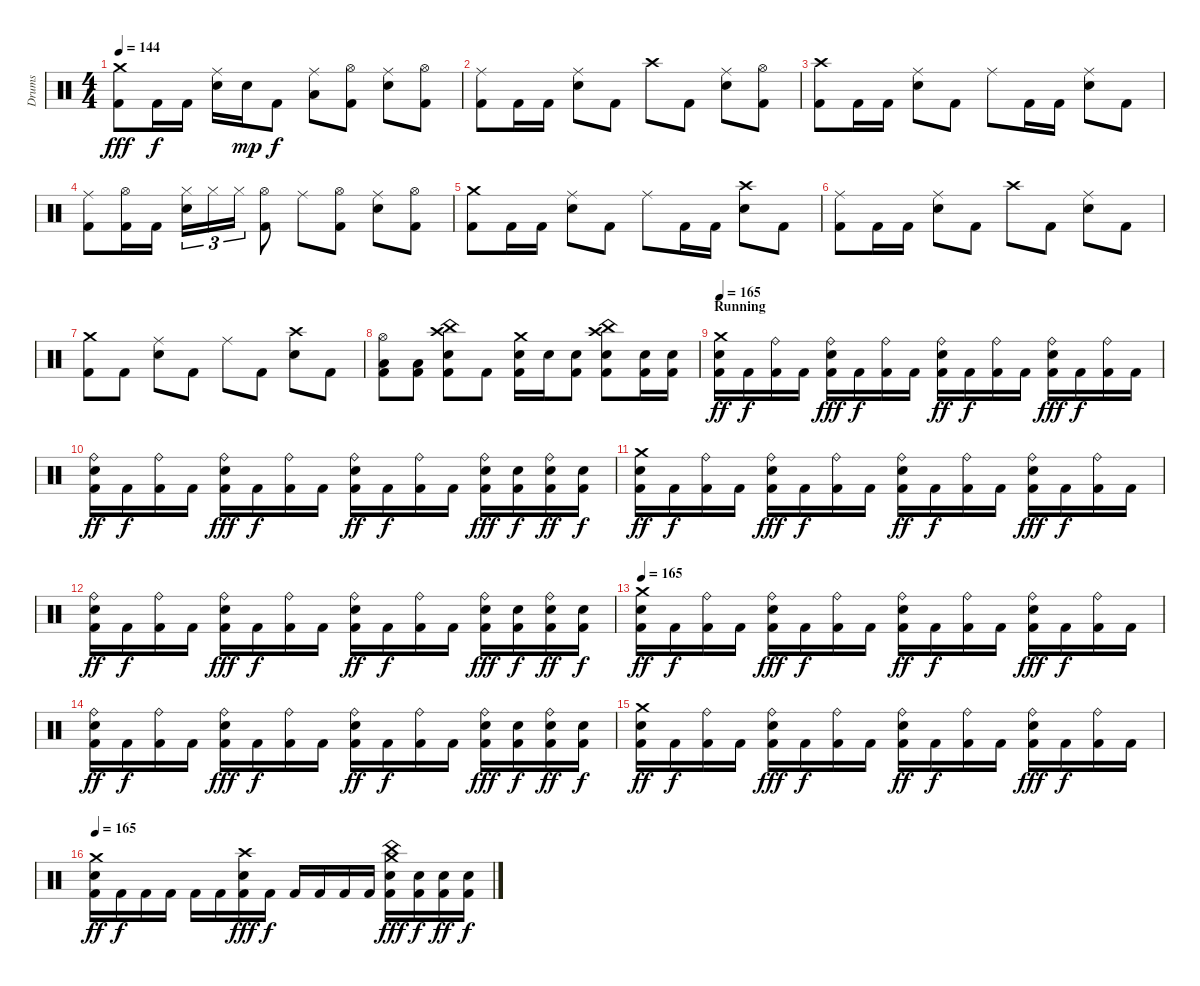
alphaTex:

\track ("Drums" "Drums") {instrument percussion}
\staff {score}
\articulation defaults
\ts (4 4)
\tempo 144
\clef neutral
\ks c
("Crash medium (hit)" "Kick (hit) 2").8{dy fff} "Kick (hit) 2".16{dy f} "Kick (hit) 2".16 ("Ride (middle)" "Snare (hit) 2").16 "Snare (hit) 2".16{dy mp} "Kick (hit) 2".8{dy f} ("Ride (middle)" "Low Tom (hit)").8 ("Hi-Hat (open)" "Kick (hit) 2").8 ("Ride (middle)" "Snare (hit) 2").8 ("Hi-Hat (open)" "Kick (hit) 2").8 |
("Ride (middle)" "Kick (hit) 2").8 "Kick (hit) 2".16 "Kick (hit) 2".16 ("Ride (middle)" "Snare (hit) 2").8 "Kick (hit) 2".8 "Crash high (hit)".8 "Kick (hit) 2".8 ("Ride (middle)" "Snare (hit) 2").8 ("Hi-Hat (open)" "Kick (hit) 2").8 |
("Crash high (hit)" "Kick (hit) 2").8 "Kick (hit) 2".16 "Kick (hit) 2".16 ("Ride (middle)" "Snare (hit) 2").8 "Kick (hit) 2".8 "Ride (middle)".8 "Kick (hit) 2".16 "Kick (hit) 2".16 ("Ride (middle)" "Snare (hit) 2").8 "Kick (hit) 2".8 |
("Ride (middle)" "Kick (hit) 2").8 ("Hi-Hat (open)" "Kick (hit) 2").16 "Kick (hit) 2".16 ("Hi-Hat (closed)" "Snare (hit) 2").16{tu (3 2)} "Hi-Hat (closed)".16{tu (3 2)} "Hi-Hat (closed)".16{tu (3 2)} ("Hi-Hat (open)" "Kick (hit) 2").8 "Ride (middle)".8 ("Hi-Hat (open)" "Kick (hit) 2").8 ("Ride (middle)" "Snare (hit) 2").8 ("Hi-Hat (open)" "Kick (hit) 2").8 |
("Crash medium (hit)" "Kick (hit) 2").8 "Kick (hit) 2".16 "Kick (hit) 2".16 ("Ride (middle)" "Snare (hit) 2").8 "Kick (hit) 2".8 "Ride (middle)".8 "Kick (hit) 2".16 "Kick (hit) 2".16 ("Crash high (hit)" "Snare (hit) 2").8 "Kick (hit) 2".8 |
("Ride (middle)" "Kick (hit) 2").8 "Kick (hit) 2".16 "Kick (hit) 2".16 ("Ride (middle)" "Snare (hit) 2").8 "Kick (hit) 2".8 "Crash high (hit)".8 "Kick (hit) 2".8 ("Ride (middle)" "Snare (hit) 2").8 "Kick (hit) 2".8 |
("Crash medium (hit)" "Kick (hit) 2").8 "Kick (hit) 2".8 ("Ride (middle)" "Snare (hit) 2").8 "Kick (hit) 2".8 "Ride (middle)".8 "Kick (hit) 2".8 ("Crash high (hit)" "Snare (hit) 2").8 "Kick (hit) 2".8 |
("Hi-Hat (open)" "Low Tom (hit)" "Kick (hit) 2").8 ("Low Tom (hit)" "Kick (hit) 2").8 ("Crash high (hit)" "China (hit)" "Snare (hit) 2" "Kick (hit) 2").8 "Kick (hit) 2".8 ("Crash medium (hit)" "Snare (hit) 2" "Kick (hit) 2").16 "Snare (hit) 2".16 ("Snare (hit) 2" "Kick (hit) 2").8 ("Crash high (hit)" "China (hit)" "Snare (hit) 2" "Kick (hit) 2").8 ("Snare (hit) 2" "Kick (hit) 2").16 ("Snare (hit) 2" "Kick (hit) 2").16 |
\section ("" "Running")
\tempo 165
("Crash medium (hit)" "Snare (hit) 2" "Kick (hit) 2").16{dy ff} "Kick (hit) 2".16{dy f} ("Ride (bell)" "Kick (hit) 2").16 "Kick (hit) 2".16 ("Ride (bell)" "Snare (hit) 2" "Kick (hit) 2").16{dy fff} "Kick (hit) 2".16{dy f} ("Ride (bell)" "Kick (hit) 2").16 "Kick (hit) 2".16 ("Ride (bell)" "Snare (hit) 2" "Kick (hit) 2").16{dy ff} "Kick (hit) 2".16{dy f} ("Ride (bell)" "Kick (hit) 2").16 "Kick (hit) 2".16 ("Ride (bell)" "Snare (hit) 2" "Kick (hit) 2").16{dy fff} "Kick (hit) 2".16{dy f} ("Ride (bell)" "Kick (hit) 2").16 "Kick (hit) 2".16 |
("Ride (bell)" "Snare (hit) 2" "Kick (hit) 2").16{dy ff} "Kick (hit) 2".16{dy f} ("Ride (bell)" "Kick (hit) 2").16 "Kick (hit) 2".16 ("Ride (bell)" "Snare (hit) 2" "Kick (hit) 2").16{dy fff} "Kick (hit) 2".16{dy f} ("Ride (bell)" "Kick (hit) 2").16 "Kick (hit) 2".16 ("Ride (bell)" "Snare (hit) 2" "Kick (hit) 2").16{dy ff} "Kick (hit) 2".16{dy f} ("Ride (bell)" "Kick (hit) 2").16 "Kick (hit) 2".16 ("Ride (bell)" "Snare (hit) 2" "Kick (hit) 2").16{dy fff} ("Snare (hit) 2" "Kick (hit) 2").16{dy f} ("Ride (bell)" "Snare (hit) 2" "Kick (hit) 2").16{dy ff} ("Snare (hit) 2" "Kick (hit) 2").16{dy f} |
("Crash medium (hit)" "Snare (hit) 2" "Kick (hit) 2").16{dy ff} "Kick (hit) 2".16{dy f} ("Ride (bell)" "Kick (hit) 2").16 "Kick (hit) 2".16 ("Ride (bell)" "Snare (hit) 2" "Kick (hit) 2").16{dy fff} "Kick (hit) 2".16{dy f} ("Ride (bell)" "Kick (hit) 2").16 "Kick (hit) 2".16 ("Ride (bell)" "Snare (hit) 2" "Kick (hit) 2").16{dy ff} "Kick (hit) 2".16{dy f} ("Ride (bell)" "Kick (hit) 2").16 "Kick (hit) 2".16 ("Ride (bell)" "Snare (hit) 2" "Kick (hit) 2").16{dy fff} "Kick (hit) 2".16{dy f} ("Ride (bell)" "Kick (hit) 2").16 "Kick (hit) 2".16 |
("Ride (bell)" "Snare (hit) 2" "Kick (hit) 2").16{dy ff} "Kick (hit) 2".16{dy f} ("Ride (bell)" "Kick (hit) 2").16 "Kick (hit) 2".16 ("Ride (bell)" "Snare (hit) 2" "Kick (hit) 2").16{dy fff} "Kick (hit) 2".16{dy f} ("Ride (bell)" "Kick (hit) 2").16 "Kick (hit) 2".16 ("Ride (bell)" "Snare (hit) 2" "Kick (hit) 2").16{dy ff} "Kick (hit) 2".16{dy f} ("Ride (bell)" "Kick (hit) 2").16 "Kick (hit) 2".16 ("Ride (bell)" "Snare (hit) 2" "Kick (hit) 2").16{dy fff} ("Snare (hit) 2" "Kick (hit) 2").16{dy f} ("Ride (bell)" "Snare (hit) 2" "Kick (hit) 2").16{dy ff} ("Snare (hit) 2" "Kick (hit) 2").16{dy f} |
\tempo 165
("Crash medium (hit)" "Snare (hit) 2" "Kick (hit) 2").16{dy ff} "Kick (hit) 2".16{dy f} ("Ride (bell)" "Kick (hit) 2").16 "Kick (hit) 2".16 ("Ride (bell)" "Snare (hit) 2" "Kick (hit) 2").16{dy fff} "Kick (hit) 2".16{dy f} ("Ride (bell)" "Kick (hit) 2").16 "Kick (hit) 2".16 ("Ride (bell)" "Snare (hit) 2" "Kick (hit) 2").16{dy ff} "Kick (hit) 2".16{dy f} ("Ride (bell)" "Kick (hit) 2").16 "Kick (hit) 2".16 ("Ride (bell)" "Snare (hit) 2" "Kick (hit) 2").16{dy fff} "Kick (hit) 2".16{dy f} ("Ride (bell)" "Kick (hit) 2").16 "Kick (hit) 2".16 |
("Ride (bell)" "Snare (hit) 2" "Kick (hit) 2").16{dy ff} "Kick (hit) 2".16{dy f} ("Ride (bell)" "Kick (hit) 2").16 "Kick (hit) 2".16 ("Ride (bell)" "Snare (hit) 2" "Kick (hit) 2").16{dy fff} "Kick (hit) 2".16{dy f} ("Ride (bell)" "Kick (hit) 2").16 "Kick (hit) 2".16 ("Ride (bell)" "Snare (hit) 2" "Kick (hit) 2").16{dy ff} "Kick (hit) 2".16{dy f} ("Ride (bell)" "Kick (hit) 2").16 "Kick (hit) 2".16 ("Ride (bell)" "Snare (hit) 2" "Kick (hit) 2").16{dy fff} ("Snare (hit) 2" "Kick (hit) 2").16{dy f} ("Ride (bell)" "Snare (hit) 2" "Kick (hit) 2").16{dy ff} ("Snare (hit) 2" "Kick (hit) 2").16{dy f} |
("Crash medium (hit)" "Snare (hit) 2" "Kick (hit) 2").16{dy ff} "Kick (hit) 2".16{dy f} ("Ride (bell)" "Kick (hit) 2").16 "Kick (hit) 2".16 ("Ride (bell)" "Snare (hit) 2" "Kick (hit) 2").16{dy fff} "Kick (hit) 2".16{dy f} ("Ride (bell)" "Kick (hit) 2").16 "Kick (hit) 2".16 ("Ride (bell)" "Snare (hit) 2" "Kick (hit) 2").16{dy ff} "Kick (hit) 2".16{dy f} ("Ride (bell)" "Kick (hit) 2").16 "Kick (hit) 2".16 ("Ride (bell)" "Snare (hit) 2" "Kick (hit) 2").16{dy fff} "Kick (hit) 2".16{dy f} ("Ride (bell)" "Kick (hit) 2").16 "Kick (hit) 2".16 |
\tempo 165
("Crash medium (hit)" "Snare (hit) 2" "Kick (hit) 2").16{dy ff} "Kick (hit) 2".16{dy f} "Kick (hit) 2".16 "Kick (hit) 2".16 "Kick (hit) 2".16 "Kick (hit) 2".16 ("Crash high (hit)" "Snare (hit) 2" "Kick (hit) 2").16{dy fff} "Kick (hit) 2".16{dy f} "Kick (hit) 2".16 "Kick (hit) 2".16 "Kick (hit) 2".16 "Kick (hit) 2".16 ("Crash medium (hit)" "China (hit)" "Snare (hit) 2" "Kick (hit) 2").16{dy fff} ("Snare (hit) 2" "Kick (hit) 2").16{dy f} ("Snare (hit) 2" "Kick (hit) 2").16{dy ff} ("Snare (hit) 2" "Kick (hit) 2").16{dy f}
